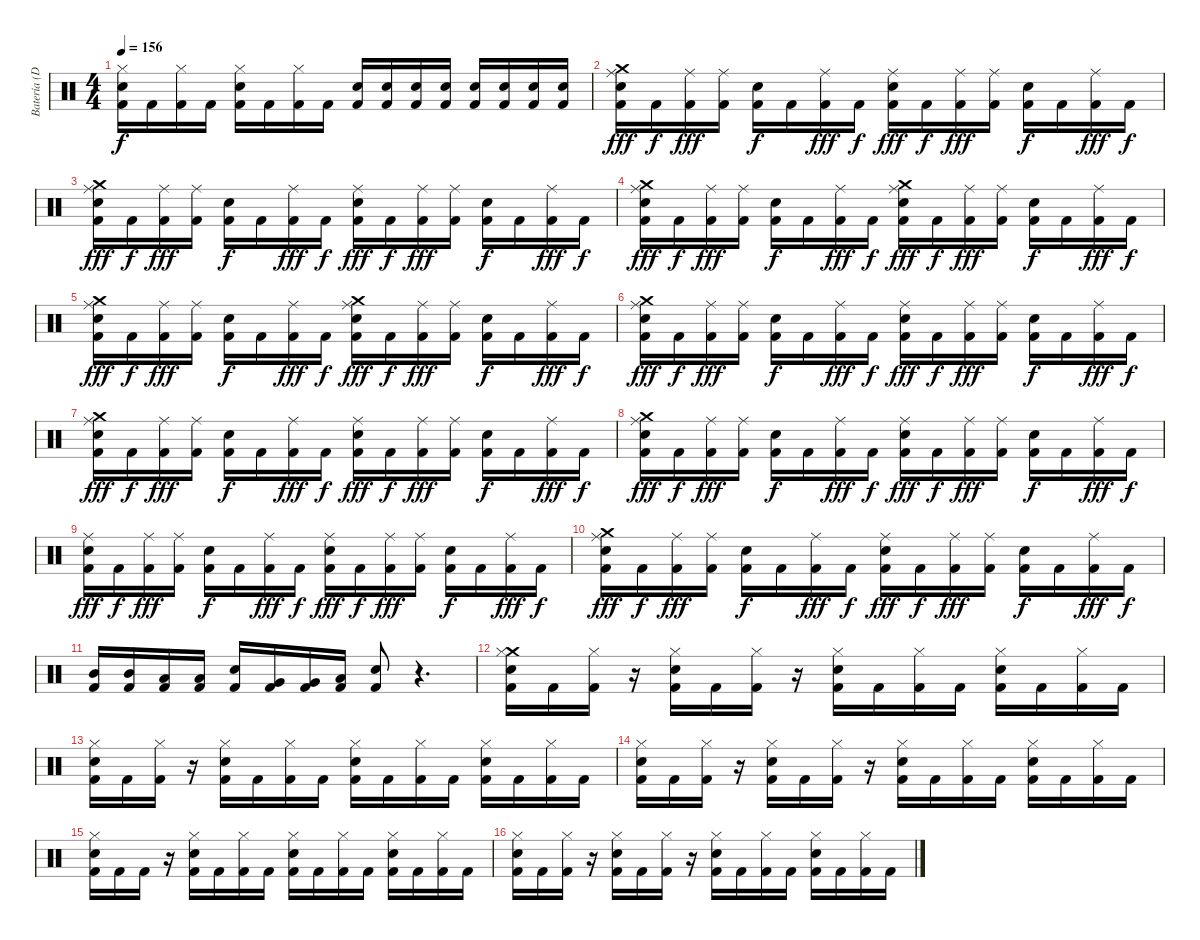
\track ("Batería (Dani)" "Batería (D") {instrument percussion}
\staff {score}
\articulation defaults
\ts (4 4)
\tempo 156
\clef neutral
\ks c
("Hi-Hat (closed)" "Snare (hit) 2" "Kick (hit) 2").16{dy f} "Kick (hit) 2".16 ("Hi-Hat (closed)" "Kick (hit) 2").16 "Kick (hit) 2".16 ("Hi-Hat (closed)" "Snare (hit) 2" "Kick (hit) 2").16 "Kick (hit) 2".16 ("Hi-Hat (closed)" "Kick (hit) 2").16 "Kick (hit) 2".16 ("Snare (hit) 2" "Kick (hit) 2").16 ("Snare (hit) 2" "Kick (hit) 2").16 ("Snare (hit) 2" "Kick (hit) 2").16 ("Snare (hit) 2" "Kick (hit) 2").16 ("Snare (hit) 2" "Kick (hit) 2").16 ("Snare (hit) 2" "Kick (hit) 2").16 ("Snare (hit) 2" "Kick (hit) 2").16 ("Snare (hit) 2" "Kick (hit) 2").16 |
("Crash medium (hit)" "Ride (middle)" "Snare (hit) 2" "Kick (hit) 2").16{dy fff} "Kick (hit) 2".16{dy f} ("Ride (middle)" "Kick (hit) 2").16{dy fff} ("Ride (middle)" "Kick (hit) 2").16 ("Snare (hit) 2" "Kick (hit) 2").16{dy f} "Kick (hit) 2".16 ("Ride (middle)" "Kick (hit) 2").16{dy fff} "Kick (hit) 2".16{dy f} ("Ride (middle)" "Snare (hit) 2" "Kick (hit) 2").16{dy fff} "Kick (hit) 2".16{dy f} ("Ride (middle)" "Kick (hit) 2").16{dy fff} ("Ride (middle)" "Kick (hit) 2").16 ("Snare (hit) 2" "Kick (hit) 2").16{dy f} "Kick (hit) 2".16 ("Ride (middle)" "Kick (hit) 2").16{dy fff} "Kick (hit) 2".16{dy f} |
("Crash medium (hit)" "Ride (middle)" "Snare (hit) 2" "Kick (hit) 2").16{dy fff} "Kick (hit) 2".16{dy f} ("Ride (middle)" "Kick (hit) 2").16{dy fff} ("Ride (middle)" "Kick (hit) 2").16 ("Snare (hit) 2" "Kick (hit) 2").16{dy f} "Kick (hit) 2".16 ("Ride (middle)" "Kick (hit) 2").16{dy fff} "Kick (hit) 2".16{dy f} ("Ride (middle)" "Snare (hit) 2" "Kick (hit) 2").16{dy fff} "Kick (hit) 2".16{dy f} ("Ride (middle)" "Kick (hit) 2").16{dy fff} ("Ride (middle)" "Kick (hit) 2").16 ("Snare (hit) 2" "Kick (hit) 2").16{dy f} "Kick (hit) 2".16 ("Ride (middle)" "Kick (hit) 2").16{dy fff} "Kick (hit) 2".16{dy f} |
("Crash medium (hit)" "Ride (middle)" "Snare (hit) 2" "Kick (hit) 2").16{dy fff} "Kick (hit) 2".16{dy f} ("Ride (middle)" "Kick (hit) 2").16{dy fff} ("Ride (middle)" "Kick (hit) 2").16 ("Snare (hit) 2" "Kick (hit) 2").16{dy f} "Kick (hit) 2".16 ("Ride (middle)" "Kick (hit) 2").16{dy fff} "Kick (hit) 2".16{dy f} ("Crash medium (hit)" "Ride (middle)" "Snare (hit) 2" "Kick (hit) 2").16{dy fff} "Kick (hit) 2".16{dy f} ("Ride (middle)" "Kick (hit) 2").16{dy fff} ("Ride (middle)" "Kick (hit) 2").16 ("Snare (hit) 2" "Kick (hit) 2").16{dy f} "Kick (hit) 2".16 ("Ride (middle)" "Kick (hit) 2").16{dy fff} "Kick (hit) 2".16{dy f} |
("Crash medium (hit)" "Ride (middle)" "Snare (hit) 2" "Kick (hit) 2").16{dy fff} "Kick (hit) 2".16{dy f} ("Ride (middle)" "Kick (hit) 2").16{dy fff} ("Ride (middle)" "Kick (hit) 2").16 ("Snare (hit) 2" "Kick (hit) 2").16{dy f} "Kick (hit) 2".16 ("Ride (middle)" "Kick (hit) 2").16{dy fff} "Kick (hit) 2".16{dy f} ("Crash medium (hit)" "Ride (middle)" "Snare (hit) 2" "Kick (hit) 2").16{dy fff} "Kick (hit) 2".16{dy f} ("Ride (middle)" "Kick (hit) 2").16{dy fff} ("Ride (middle)" "Kick (hit) 2").16 ("Snare (hit) 2" "Kick (hit) 2").16{dy f} "Kick (hit) 2".16 ("Ride (middle)" "Kick (hit) 2").16{dy fff} "Kick (hit) 2".16{dy f} |
("Crash medium (hit)" "Ride (middle)" "Snare (hit) 2" "Kick (hit) 2").16{dy fff} "Kick (hit) 2".16{dy f} ("Ride (middle)" "Kick (hit) 2").16{dy fff} ("Ride (middle)" "Kick (hit) 2").16 ("Snare (hit) 2" "Kick (hit) 2").16{dy f} "Kick (hit) 2".16 ("Ride (middle)" "Kick (hit) 2").16{dy fff} "Kick (hit) 2".16{dy f} ("Ride (middle)" "Snare (hit) 2" "Kick (hit) 2").16{dy fff} "Kick (hit) 2".16{dy f} ("Ride (middle)" "Kick (hit) 2").16{dy fff} ("Ride (middle)" "Kick (hit) 2").16 ("Snare (hit) 2" "Kick (hit) 2").16{dy f} "Kick (hit) 2".16 ("Ride (middle)" "Kick (hit) 2").16{dy fff} "Kick (hit) 2".16{dy f} |
("Crash medium (hit)" "Ride (middle)" "Snare (hit) 2" "Kick (hit) 2").16{dy fff} "Kick (hit) 2".16{dy f} ("Ride (middle)" "Kick (hit) 2").16{dy fff} ("Ride (middle)" "Kick (hit) 2").16 ("Snare (hit) 2" "Kick (hit) 2").16{dy f} "Kick (hit) 2".16 ("Ride (middle)" "Kick (hit) 2").16{dy fff} "Kick (hit) 2".16{dy f} ("Ride (middle)" "Snare (hit) 2" "Kick (hit) 2").16{dy fff} "Kick (hit) 2".16{dy f} ("Ride (middle)" "Kick (hit) 2").16{dy fff} ("Ride (middle)" "Kick (hit) 2").16 ("Snare (hit) 2" "Kick (hit) 2").16{dy f} "Kick (hit) 2".16 ("Ride (middle)" "Kick (hit) 2").16{dy fff} "Kick (hit) 2".16{dy f} |
("Crash medium (hit)" "Ride (middle)" "Snare (hit) 2" "Kick (hit) 2").16{dy fff} "Kick (hit) 2".16{dy f} ("Ride (middle)" "Kick (hit) 2").16{dy fff} ("Ride (middle)" "Kick (hit) 2").16 ("Snare (hit) 2" "Kick (hit) 2").16{dy f} "Kick (hit) 2".16 ("Ride (middle)" "Kick (hit) 2").16{dy fff} "Kick (hit) 2".16{dy f} ("Ride (middle)" "Snare (hit) 2" "Kick (hit) 2").16{dy fff} "Kick (hit) 2".16{dy f} ("Ride (middle)" "Kick (hit) 2").16{dy fff} ("Ride (middle)" "Kick (hit) 2").16 ("Snare (hit) 2" "Kick (hit) 2").16{dy f} "Kick (hit) 2".16 ("Ride (middle)" "Kick (hit) 2").16{dy fff} "Kick (hit) 2".16{dy f} |
("Ride (middle)" "Snare (hit) 2" "Kick (hit) 2").16{dy fff} "Kick (hit) 2".16{dy f} ("Ride (middle)" "Kick (hit) 2").16{dy fff} ("Ride (middle)" "Kick (hit) 2").16 ("Snare (hit) 2" "Kick (hit) 2").16{dy f} "Kick (hit) 2".16 ("Ride (middle)" "Kick (hit) 2").16{dy fff} "Kick (hit) 2".16{dy f} ("Ride (middle)" "Snare (hit) 2" "Kick (hit) 2").16{dy fff} "Kick (hit) 2".16{dy f} ("Ride (middle)" "Kick (hit) 2").16{dy fff} ("Ride (middle)" "Kick (hit) 2").16 ("Snare (hit) 2" "Kick (hit) 2").16{dy f} "Kick (hit) 2".16 ("Ride (middle)" "Kick (hit) 2").16{dy fff} "Kick (hit) 2".16{dy f} |
("Crash medium (hit)" "Ride (middle)" "Snare (hit) 2" "Kick (hit) 2").16{dy fff} "Kick (hit) 2".16{dy f} ("Ride (middle)" "Kick (hit) 2").16{dy fff} ("Ride (middle)" "Kick (hit) 2").16 ("Snare (hit) 2" "Kick (hit) 2").16{dy f} "Kick (hit) 2".16 ("Ride (middle)" "Kick (hit) 2").16{dy fff} "Kick (hit) 2".16{dy f} ("Ride (middle)" "Snare (hit) 2" "Kick (hit) 2").16{dy fff} "Kick (hit) 2".16{dy f} ("Ride (middle)" "Kick (hit) 2").16{dy fff} ("Ride (middle)" "Kick (hit) 2").16 ("Snare (hit) 2" "Kick (hit) 2").16{dy f} "Kick (hit) 2".16 ("Ride (middle)" "Kick (hit) 2").16{dy fff} "Kick (hit) 2".16{dy f} |
("Mid Tom (hit)" "Kick (hit) 2").16 ("Mid Tom (hit)" "Kick (hit) 2").16 ("Low Tom (hit)" "Kick (hit) 2").16 ("Low Tom (hit)" "Kick (hit) 2").16 ("Snare (hit) 2" "Kick (hit) 2").16 ("Very Low Tom (hit)" "Kick (hit) 2").16 ("Very Low Tom (hit)" "Kick (hit) 2").16 ("Low Floor Tom (hit)" "Kick (hit) 2").16 ("Snare (hit) 2" "Kick (hit) 2").8 r.4{d} |
("Crash medium (hit)" "Hi-Hat (closed)" "Snare (hit) 2" "Kick (hit) 2").16 "Kick (hit) 2".16 ("Hi-Hat (closed)" "Kick (hit) 2").16 r.16 ("Hi-Hat (closed)" "Snare (hit) 2" "Kick (hit) 2").16 "Kick (hit) 2".16 ("Hi-Hat (closed)" "Kick (hit) 2").16 r.16 ("Hi-Hat (closed)" "Snare (hit) 2" "Kick (hit) 2").16 "Kick (hit) 2".16 ("Hi-Hat (closed)" "Kick (hit) 2").16 "Kick (hit) 2".16 ("Hi-Hat (closed)" "Snare (hit) 2" "Kick (hit) 2").16 "Kick (hit) 2".16 ("Hi-Hat (closed)" "Kick (hit) 2").16 "Kick (hit) 2".16 |
("Hi-Hat (closed)" "Snare (hit) 2" "Kick (hit) 2").16 "Kick (hit) 2".16 ("Hi-Hat (closed)" "Kick (hit) 2").16 r.16 ("Hi-Hat (closed)" "Snare (hit) 2" "Kick (hit) 2").16 "Kick (hit) 2".16 ("Hi-Hat (closed)" "Kick (hit) 2").16 "Kick (hit) 2".16 ("Hi-Hat (closed)" "Snare (hit) 2" "Kick (hit) 2").16 "Kick (hit) 2".16 ("Hi-Hat (closed)" "Kick (hit) 2").16 "Kick (hit) 2".16 ("Hi-Hat (closed)" "Snare (hit) 2" "Kick (hit) 2").16 "Kick (hit) 2".16 ("Hi-Hat (closed)" "Kick (hit) 2").16 "Kick (hit) 2".16 |
("Hi-Hat (closed)" "Snare (hit) 2" "Kick (hit) 2").16 "Kick (hit) 2".16 ("Hi-Hat (closed)" "Kick (hit) 2").16 r.16 ("Hi-Hat (closed)" "Snare (hit) 2" "Kick (hit) 2").16 "Kick (hit) 2".16 ("Hi-Hat (closed)" "Kick (hit) 2").16 r.16 ("Hi-Hat (closed)" "Snare (hit) 2" "Kick (hit) 2").16 "Kick (hit) 2".16 ("Hi-Hat (closed)" "Kick (hit) 2").16 "Kick (hit) 2".16 ("Hi-Hat (closed)" "Snare (hit) 2" "Kick (hit) 2").16 "Kick (hit) 2".16 ("Hi-Hat (closed)" "Kick (hit) 2").16 "Kick (hit) 2".16 |
("Hi-Hat (closed)" "Snare (hit) 2" "Kick (hit) 2").16 "Kick (hit) 2".16 "Kick (hit) 2".16 r.16 ("Hi-Hat (closed)" "Snare (hit) 2" "Kick (hit) 2").16 "Kick (hit) 2".16 ("Hi-Hat (closed)" "Kick (hit) 2").16 "Kick (hit) 2".16 ("Hi-Hat (closed)" "Snare (hit) 2" "Kick (hit) 2").16 "Kick (hit) 2".16 ("Hi-Hat (closed)" "Kick (hit) 2").16 "Kick (hit) 2".16 ("Hi-Hat (closed)" "Snare (hit) 2" "Kick (hit) 2").16 "Kick (hit) 2".16 ("Hi-Hat (closed)" "Kick (hit) 2").16 "Kick (hit) 2".16 |
("Hi-Hat (closed)" "Snare (hit) 2" "Kick (hit) 2").16 "Kick (hit) 2".16 ("Hi-Hat (closed)" "Kick (hit) 2").16 r.16 ("Hi-Hat (closed)" "Snare (hit) 2" "Kick (hit) 2").16 "Kick (hit) 2".16 ("Hi-Hat (closed)" "Kick (hit) 2").16 r.16 ("Hi-Hat (closed)" "Snare (hit) 2" "Kick (hit) 2").16 "Kick (hit) 2".16 ("Hi-Hat (closed)" "Kick (hit) 2").16 "Kick (hit) 2".16 ("Hi-Hat (closed)" "Snare (hit) 2" "Kick (hit) 2").16 "Kick (hit) 2".16 ("Hi-Hat (closed)" "Kick (hit) 2").16 "Kick (hit) 2".16
